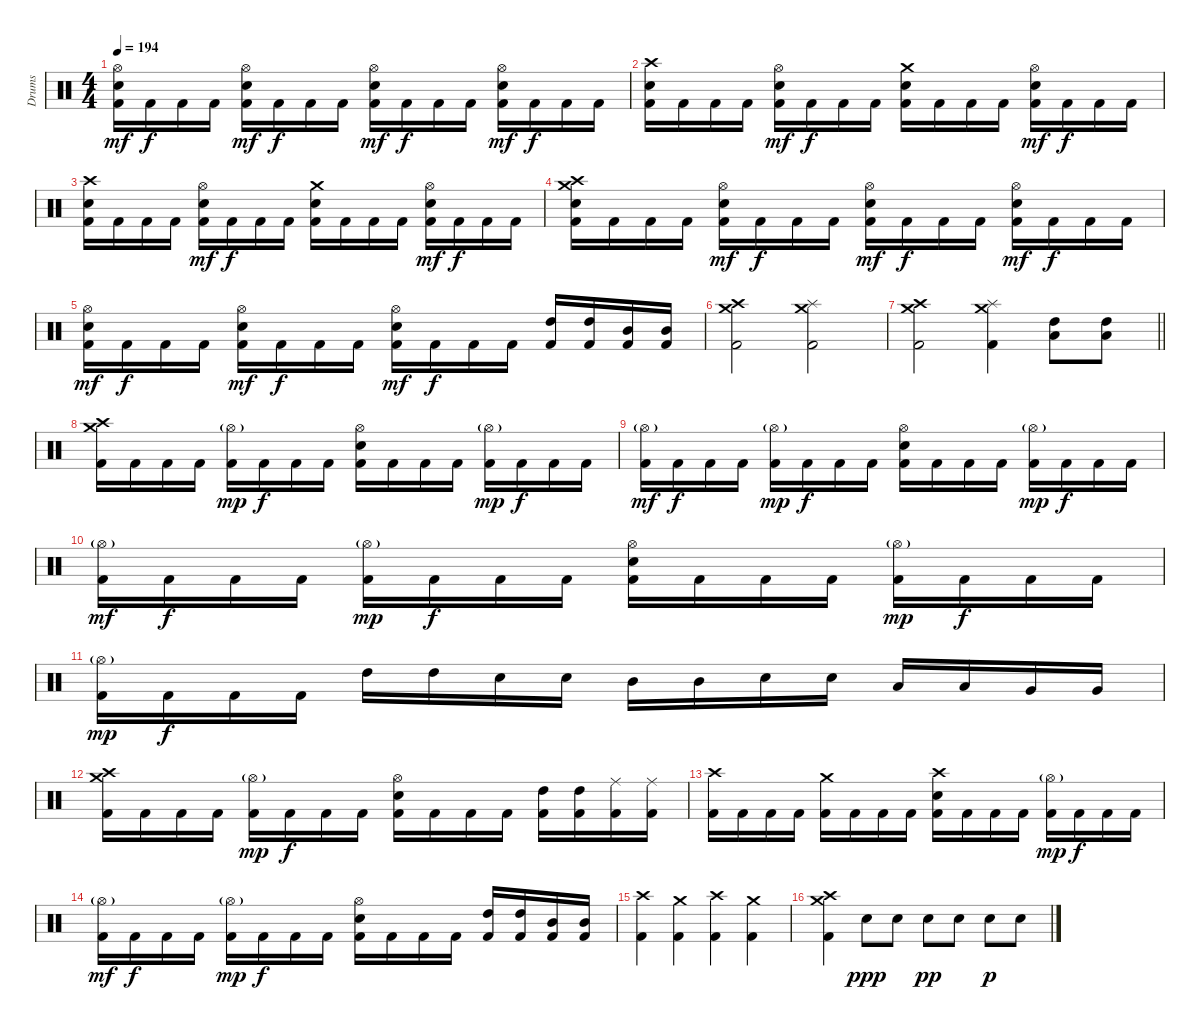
\track ("Drums" "Drums") {instrument percussion}
\staff {score}
\articulation defaults
\ts (4 4)
\tempo 194
\clef neutral
\ks c
("Hi-Hat (open)" "Electric Snare (hit)" "Kick (hit) 2").16{dy mf} "Kick (hit) 2".16{dy f} "Kick (hit) 2".16 "Kick (hit) 2".16 ("Hi-Hat (open)" "Electric Snare (hit)" "Kick (hit) 2").16{dy mf} "Kick (hit) 2".16{dy f} "Kick (hit) 2".16 "Kick (hit) 2".16 ("Hi-Hat (open)" "Electric Snare (hit)" "Kick (hit) 2").16{dy mf} "Kick (hit) 2".16{dy f} "Kick (hit) 2".16 "Kick (hit) 2".16 ("Hi-Hat (open)" "Electric Snare (hit)" "Kick (hit) 2").16{dy mf} "Kick (hit) 2".16{dy f} "Kick (hit) 2".16 "Kick (hit) 2".16 |
("Crash high (hit)" "Electric Snare (hit)" "Kick (hit) 2").16 "Kick (hit) 2".16 "Kick (hit) 2".16 "Kick (hit) 2".16 ("Hi-Hat (open)" "Electric Snare (hit)" "Kick (hit) 2").16{dy mf} "Kick (hit) 2".16{dy f} "Kick (hit) 2".16 "Kick (hit) 2".16 ("Crash medium (hit)" "Electric Snare (hit)" "Kick (hit) 2").16 "Kick (hit) 2".16 "Kick (hit) 2".16 "Kick (hit) 2".16 ("Hi-Hat (open)" "Electric Snare (hit)" "Kick (hit) 2").16{dy mf} "Kick (hit) 2".16{dy f} "Kick (hit) 2".16 "Kick (hit) 2".16 |
("Crash high (hit)" "Electric Snare (hit)" "Kick (hit) 2").16 "Kick (hit) 2".16 "Kick (hit) 2".16 "Kick (hit) 2".16 ("Hi-Hat (open)" "Electric Snare (hit)" "Kick (hit) 2").16{dy mf} "Kick (hit) 2".16{dy f} "Kick (hit) 2".16 "Kick (hit) 2".16 ("Crash medium (hit)" "Electric Snare (hit)" "Kick (hit) 2").16 "Kick (hit) 2".16 "Kick (hit) 2".16 "Kick (hit) 2".16 ("Hi-Hat (open)" "Electric Snare (hit)" "Kick (hit) 2").16{dy mf} "Kick (hit) 2".16{dy f} "Kick (hit) 2".16 "Kick (hit) 2".16 |
("Crash high (hit)" "Crash medium (hit)" "Electric Snare (hit)" "Kick (hit) 2").16 "Kick (hit) 2".16 "Kick (hit) 2".16 "Kick (hit) 2".16 ("Hi-Hat (open)" "Electric Snare (hit)" "Kick (hit) 2").16{dy mf} "Kick (hit) 2".16{dy f} "Kick (hit) 2".16 "Kick (hit) 2".16 ("Hi-Hat (open)" "Electric Snare (hit)" "Kick (hit) 2").16{dy mf} "Kick (hit) 2".16{dy f} "Kick (hit) 2".16 "Kick (hit) 2".16 ("Hi-Hat (open)" "Electric Snare (hit)" "Kick (hit) 2").16{dy mf} "Kick (hit) 2".16{dy f} "Kick (hit) 2".16 "Kick (hit) 2".16 |
("Hi-Hat (open)" "Electric Snare (hit)" "Kick (hit) 2").16{dy mf} "Kick (hit) 2".16{dy f} "Kick (hit) 2".16 "Kick (hit) 2".16 ("Hi-Hat (open)" "Electric Snare (hit)" "Kick (hit) 2").16{dy mf} "Kick (hit) 2".16{dy f} "Kick (hit) 2".16 "Kick (hit) 2".16 ("Hi-Hat (open)" "Electric Snare (hit)" "Kick (hit) 2").16{dy mf} "Kick (hit) 2".16{dy f} "Kick (hit) 2".16 "Kick (hit) 2".16 ("High Tom (hit)" "Kick (hit) 2").16 ("High Tom (hit)" "Kick (hit) 2").16 ("Mid Tom (hit)" "Kick (hit) 2").16 ("Mid Tom (hit)" "Kick (hit) 2").16 |
("Crash high (hit)" "Crash medium (hit)" "Kick (hit) 2").2 ("Crash medium (hit)" "Splash (hit)" "Kick (hit) 2").2 |
\barLineRight lightlight
("Crash high (hit)" "Crash medium (hit)" "Kick (hit) 2").2 ("Crash medium (hit)" "Splash (hit)" "Kick (hit) 2").4 ("High Tom (hit)" "Low Tom (hit)").8 ("High Tom (hit)" "Low Tom (hit)").8 |
("Crash high (hit)" "Crash medium (hit)" "Kick (hit) 2").16 "Kick (hit) 2".16 "Kick (hit) 2".16 "Kick (hit) 2".16 ("Hi-Hat (open)"{g} "Kick (hit) 2").16{dy mp} "Kick (hit) 2".16{dy f} "Kick (hit) 2".16 "Kick (hit) 2".16 ("Hi-Hat (open)" "Electric Snare (hit)" "Kick (hit) 2").16 "Kick (hit) 2".16 "Kick (hit) 2".16 "Kick (hit) 2".16 ("Hi-Hat (open)"{g} "Kick (hit) 2").16{dy mp} "Kick (hit) 2".16{dy f} "Kick (hit) 2".16 "Kick (hit) 2".16 |
("Hi-Hat (open)"{g} "Kick (hit) 2").16{dy mf} "Kick (hit) 2".16{dy f} "Kick (hit) 2".16 "Kick (hit) 2".16 ("Hi-Hat (open)"{g} "Kick (hit) 2").16{dy mp} "Kick (hit) 2".16{dy f} "Kick (hit) 2".16 "Kick (hit) 2".16 ("Hi-Hat (open)" "Electric Snare (hit)" "Kick (hit) 2").16 "Kick (hit) 2".16 "Kick (hit) 2".16 "Kick (hit) 2".16 ("Hi-Hat (open)"{g} "Kick (hit) 2").16{dy mp} "Kick (hit) 2".16{dy f} "Kick (hit) 2".16 "Kick (hit) 2".16 |
("Hi-Hat (open)"{g} "Kick (hit) 2").16{dy mf} "Kick (hit) 2".16{dy f} "Kick (hit) 2".16 "Kick (hit) 2".16 ("Hi-Hat (open)"{g} "Kick (hit) 2").16{dy mp} "Kick (hit) 2".16{dy f} "Kick (hit) 2".16 "Kick (hit) 2".16 ("Hi-Hat (open)" "Electric Snare (hit)" "Kick (hit) 2").16 "Kick (hit) 2".16 "Kick (hit) 2".16 "Kick (hit) 2".16 ("Hi-Hat (open)"{g} "Kick (hit) 2").16{dy mp} "Kick (hit) 2".16{dy f} "Kick (hit) 2".16 "Kick (hit) 2".16 |
("Hi-Hat (open)"{g} "Kick (hit) 2").16{dy mp} "Kick (hit) 2".16{dy f} "Kick (hit) 2".16 "Kick (hit) 2".16 "High Tom (hit)".16 "High Tom (hit)".16 "Electric Snare (hit)".16 "Electric Snare (hit)".16 "Mid Tom (hit)".16 "Mid Tom (hit)".16 "Electric Snare (hit)".16 "Electric Snare (hit)".16 "Low Tom (hit)".16 "Low Tom (hit)".16 "Very Low Tom (hit)".16 "Very Low Tom (hit)".16 |
("Crash high (hit)" "Crash medium (hit)" "Kick (hit) 2").16 "Kick (hit) 2".16 "Kick (hit) 2".16 "Kick (hit) 2".16 ("Hi-Hat (open)"{g} "Kick (hit) 2").16{dy mp} "Kick (hit) 2".16{dy f} "Kick (hit) 2".16 "Kick (hit) 2".16 ("Hi-Hat (open)" "Electric Snare (hit)" "Kick (hit) 2").16 "Kick (hit) 2".16 "Kick (hit) 2".16 "Kick (hit) 2".16 ("High Tom (hit)" "Kick (hit) 2").16 ("High Tom (hit)" "Kick (hit) 2").16 ("Ride (middle)" "Kick (hit) 2").16 ("Ride (middle)" "Kick (hit) 2").16 |
("Crash high (hit)" "Kick (hit) 2").16 "Kick (hit) 2".16 "Kick (hit) 2".16 "Kick (hit) 2".16 ("Crash medium (hit)" "Kick (hit) 2").16 "Kick (hit) 2".16 "Kick (hit) 2".16 "Kick (hit) 2".16 ("Crash high (hit)" "Electric Snare (hit)" "Kick (hit) 2").16 "Kick (hit) 2".16 "Kick (hit) 2".16 "Kick (hit) 2".16 ("Hi-Hat (open)"{g} "Kick (hit) 2").16{dy mp} "Kick (hit) 2".16{dy f} "Kick (hit) 2".16 "Kick (hit) 2".16 |
("Hi-Hat (open)"{g} "Kick (hit) 2").16{dy mf} "Kick (hit) 2".16{dy f} "Kick (hit) 2".16 "Kick (hit) 2".16 ("Hi-Hat (open)"{g} "Kick (hit) 2").16{dy mp} "Kick (hit) 2".16{dy f} "Kick (hit) 2".16 "Kick (hit) 2".16 ("Hi-Hat (open)" "Electric Snare (hit)" "Kick (hit) 2").16 "Kick (hit) 2".16 "Kick (hit) 2".16 "Kick (hit) 2".16 ("High Tom (hit)" "Kick (hit) 2").16 ("High Tom (hit)" "Kick (hit) 2").16 ("Mid Tom (hit)" "Kick (hit) 2").16 ("Mid Tom (hit)" "Kick (hit) 2").16 |
("Crash high (hit)" "Kick (hit) 2").4 ("Crash medium (hit)" "Kick (hit) 2").4 ("Crash high (hit)" "Kick (hit) 2").4 ("Crash medium (hit)" "Kick (hit) 2").4 |
("Crash high (hit)" "Crash medium (hit)" "Kick (hit) 2").4 "Electric Snare (hit)".8{dy ppp} "Electric Snare (hit)".8 "Electric Snare (hit)".8{dy pp} "Electric Snare (hit)".8 "Electric Snare (hit)".8{dy p} "Electric Snare (hit)".8
